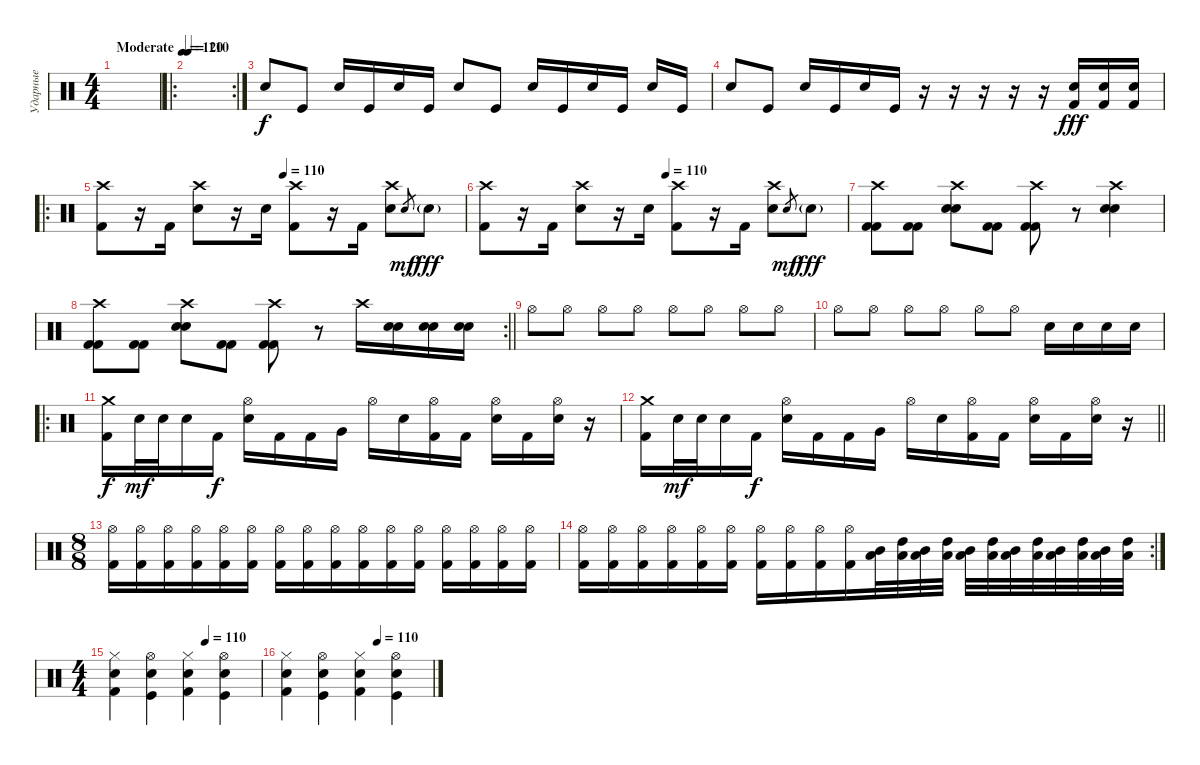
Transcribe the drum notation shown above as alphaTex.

\track ("Ударные" "Ударные") {instrument percussion}
\staff {score}
\articulation defaults
\ts (4 4)
\tempo (120 "Moderate")
\clef neutral
\ks c
|
\ro
\rc 2
\tempo 110
|
"Electric Snare (hit)".8{volume 13} "Kick (hit)".8 "Electric Snare (hit)".16 "Kick (hit)".16 "Electric Snare (hit)".16 "Kick (hit)".16 "Electric Snare (hit)".8 "Kick (hit)".8 "Electric Snare (hit)".16 "Kick (hit)".16 "Electric Snare (hit)".16 "Kick (hit)".16 "Electric Snare (hit)".16 "Kick (hit)".16 |
"Electric Snare (hit)".8 "Kick (hit)".8 "Electric Snare (hit)".16 "Kick (hit)".16 "Electric Snare (hit)".16 "Kick (hit)".16 r.16 r.16 r.16 r.16 r.16 ("Snare (hit) 2" "Kick (hit) 2").16{dy fff} ("Snare (hit) 2" "Kick (hit) 2").16 ("Snare (hit) 2" "Kick (hit) 2").16 |
\ro
\tempo (110 0.5)
("Crash high (hit)" "Kick (hit) 2").8 r.16 "Kick (hit) 2".16 ("Crash high (hit)" "Electric Snare (hit)").8 r.16 "Electric Snare (hit)".16 ("Crash high (hit)" "Kick (hit) 2").8 r.16 "Kick (hit) 2".16 ("Crash high (hit)" "Electric Snare (hit)").8 "Electric Snare (hit)".8{gr dy mf} "Electric Snare (hit)"{g}.8{dy fff} |
\tempo (110 0.5)
("Crash high (hit)" "Kick (hit) 2").8 r.16 "Kick (hit) 2".16 ("Crash high (hit)" "Electric Snare (hit)").8 r.16 "Electric Snare (hit)".16 ("Crash high (hit)" "Kick (hit) 2").8 r.16 "Kick (hit) 2".16 ("Crash high (hit)" "Electric Snare (hit)").8 "Electric Snare (hit)".8{gr dy mf} "Electric Snare (hit)"{g}.8{dy fff} |
("Kick (hit) 2" "Kick (hit) 2" "Crash high (hit)").8 ("Kick (hit) 2" "Kick (hit) 2").8 ("Electric Snare (hit)" "Electric Snare (hit)" "Crash high (hit)").8 ("Kick (hit) 2" "Kick (hit) 2").8 ("Kick (hit) 2" "Kick (hit) 2" "Crash high (hit)").8 r.8 ("Electric Snare (hit)" "Electric Snare (hit)" "Crash high (hit)").4 |
\rc 2
\barLineRight lightlight
("Kick (hit) 2" "Kick (hit) 2" "Crash high (hit)").8 ("Kick (hit) 2" "Kick (hit) 2").8 ("Electric Snare (hit)" "Electric Snare (hit)" "Crash high (hit)").8 ("Kick (hit) 2" "Kick (hit) 2").8 ("Kick (hit) 2" "Kick (hit) 2" "Crash high (hit)").8 r.8 "Crash high (hit)".16 ("Snare (hit) 2" "Electric Snare (hit)").16 ("Snare (hit) 2" "Electric Snare (hit)").16 ("Snare (hit) 2" "Electric Snare (hit)").16 |
"Hi-Hat (open)".8{volume 6} "Hi-Hat (open)".8{volume 13} "Hi-Hat (open)".8 "Hi-Hat (open)".8 "Hi-Hat (open)".8 "Hi-Hat (open)".8 "Hi-Hat (open)".8 "Hi-Hat (open)".8 |
"Hi-Hat (open)".8 "Hi-Hat (open)".8 "Hi-Hat (open)".8 "Hi-Hat (open)".8 "Hi-Hat (open)".8 "Hi-Hat (open)".8 "Electric Snare (hit)".16 "Electric Snare (hit)".16 "Electric Snare (hit)".16 "Electric Snare (hit)".16 |
\ro
("Crash medium (hit)" "Kick (hit) 2").16{dy f} "Electric Snare (hit)".32{dy mf} "Electric Snare (hit)".32 "Electric Snare (hit)".16 "Kick (hit) 2".16{dy f} ("Hi-Hat (open)" "Electric Snare (hit)").16 "Kick (hit) 2".16 "Kick (hit) 2".16 "Very Low Tom (hit)".16 "Hi-Hat (open)".16 "Electric Snare (hit)".16 ("Hi-Hat (open)" "Kick (hit) 2").16 "Kick (hit) 2".16 ("Hi-Hat (open)" "Electric Snare (hit)").16 "Kick (hit) 2".16 ("Hi-Hat (open)" "Electric Snare (hit)").16 r.16 |
\barLineRight lightlight
("Crash medium (hit)" "Kick (hit) 2").16 "Electric Snare (hit)".32{dy mf} "Electric Snare (hit)".32 "Electric Snare (hit)".16 "Kick (hit) 2".16{dy f} ("Hi-Hat (open)" "Electric Snare (hit)").16 "Kick (hit) 2".16 "Kick (hit) 2".16 "Very Low Tom (hit)".16 "Hi-Hat (open)".16 "Electric Snare (hit)".16 ("Hi-Hat (open)" "Kick (hit) 2").16 "Kick (hit) 2".16 ("Hi-Hat (open)" "Electric Snare (hit)").16 "Kick (hit) 2".16 ("Hi-Hat (open)" "Electric Snare (hit)").16 r.16 |
\ts (8 8)
("Kick (hit) 2" "Hi-Hat (open)").16 ("Kick (hit) 2" "Hi-Hat (open)").16 ("Kick (hit) 2" "Hi-Hat (open)").16 ("Kick (hit) 2" "Hi-Hat (open)").16 ("Kick (hit) 2" "Hi-Hat (open)").16 ("Kick (hit) 2" "Hi-Hat (open)").16 ("Kick (hit) 2" "Hi-Hat (open)").16 ("Kick (hit) 2" "Hi-Hat (open)").16 ("Kick (hit) 2" "Hi-Hat (open)").16 ("Kick (hit) 2" "Hi-Hat (open)").16 ("Kick (hit) 2" "Hi-Hat (open)").16 ("Kick (hit) 2" "Hi-Hat (open)").16 ("Kick (hit) 2" "Hi-Hat (open)").16 ("Kick (hit) 2" "Hi-Hat (open)").16 ("Kick (hit) 2" "Hi-Hat (open)").16 ("Kick (hit) 2" "Hi-Hat (open)").16 |
\rc 2
("Kick (hit) 2" "Hi-Hat (open)").16 ("Kick (hit) 2" "Hi-Hat (open)").16 ("Kick (hit) 2" "Hi-Hat (open)").16 ("Kick (hit) 2" "Hi-Hat (open)").16 ("Kick (hit) 2" "Hi-Hat (open)").16 ("Kick (hit) 2" "Hi-Hat (open)").16 ("Kick (hit) 2" "Hi-Hat (open)").16 ("Kick (hit) 2" "Hi-Hat (open)").16 ("Kick (hit) 2" "Hi-Hat (open)").16 ("Kick (hit) 2" "Hi-Hat (open)").16 ("Mid Tom (hit)" "Low Tom (hit)").32 ("High Tom (hit)" "Low Tom (hit)").32 ("Mid Tom (hit)" "Low Tom (hit)").32 ("High Tom (hit)" "Low Tom (hit)").32 ("Mid Tom (hit)" "Low Tom (hit)").32 ("High Tom (hit)" "Low Tom (hit)").32 ("Mid Tom (hit)" "Low Tom (hit)").32 ("High Tom (hit)" "Low Tom (hit)").32 ("Mid Tom (hit)" "Low Tom (hit)").32 ("High Tom (hit)" "Low Tom (hit)").32 ("Mid Tom (hit)" "Low Tom (hit)").32 ("High Tom (hit)" "Low Tom (hit)").32 |
\ts (4 4)
\tempo (110 0.625)
("Hi-Hat (closed)" "Snare (hit) 2" "Kick (hit) 2").4 ("Electric Snare (hit)" "Hi-Hat (open)" "Kick (hit)").4 ("Hi-Hat (closed)" "Snare (hit) 2" "Kick (hit) 2").4 ("Electric Snare (hit)" "Hi-Hat (open)" "Kick (hit)").4 |
\tempo (110 0.625)
("Hi-Hat (closed)" "Snare (hit) 2" "Kick (hit) 2").4 ("Electric Snare (hit)" "Hi-Hat (open)" "Kick (hit)").4 ("Hi-Hat (closed)" "Snare (hit) 2" "Kick (hit) 2").4 ("Electric Snare (hit)" "Hi-Hat (open)" "Kick (hit)").4
